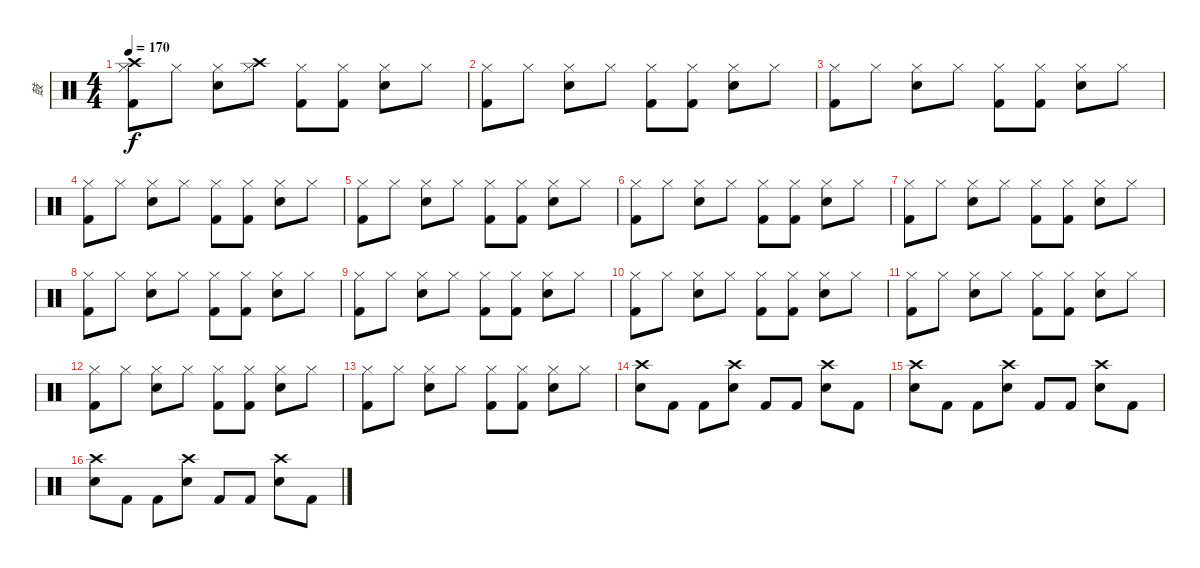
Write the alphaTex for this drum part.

\track ("鼓" "鼓") {instrument percussion}
\staff {score}
\articulation defaults
\ts (4 4)
\tempo 170
\clef neutral
\ks c
("Crash high (hit)" "Hi-Hat (closed)" "Kick (hit) 2").8{dy f} "Hi-Hat (closed)".8 ("Hi-Hat (closed)" "Electric Snare (hit)").8 ("Crash high (hit)" "Hi-Hat (closed)").8 ("Hi-Hat (closed)" "Kick (hit) 2").8 ("Hi-Hat (closed)" "Kick (hit) 2").8 ("Hi-Hat (closed)" "Electric Snare (hit)").8 "Hi-Hat (closed)".8 |
("Hi-Hat (closed)" "Kick (hit) 2").8 "Hi-Hat (closed)".8 ("Hi-Hat (closed)" "Electric Snare (hit)").8 "Hi-Hat (closed)".8 ("Hi-Hat (closed)" "Kick (hit) 2").8 ("Hi-Hat (closed)" "Kick (hit) 2").8 ("Hi-Hat (closed)" "Electric Snare (hit)").8 "Hi-Hat (closed)".8 |
("Hi-Hat (closed)" "Kick (hit) 2").8 "Hi-Hat (closed)".8 ("Hi-Hat (closed)" "Electric Snare (hit)").8 "Hi-Hat (closed)".8 ("Hi-Hat (closed)" "Kick (hit) 2").8 ("Hi-Hat (closed)" "Kick (hit) 2").8 ("Hi-Hat (closed)" "Electric Snare (hit)").8 "Hi-Hat (closed)".8 |
("Hi-Hat (closed)" "Kick (hit) 2").8 "Hi-Hat (closed)".8 ("Hi-Hat (closed)" "Electric Snare (hit)").8 "Hi-Hat (closed)".8 ("Hi-Hat (closed)" "Kick (hit) 2").8 ("Hi-Hat (closed)" "Kick (hit) 2").8 ("Hi-Hat (closed)" "Electric Snare (hit)").8 "Hi-Hat (closed)".8 |
("Hi-Hat (closed)" "Kick (hit) 2").8 "Hi-Hat (closed)".8 ("Hi-Hat (closed)" "Electric Snare (hit)").8 "Hi-Hat (closed)".8 ("Hi-Hat (closed)" "Kick (hit) 2").8 ("Hi-Hat (closed)" "Kick (hit) 2").8 ("Hi-Hat (closed)" "Electric Snare (hit)").8 "Hi-Hat (closed)".8 |
("Hi-Hat (closed)" "Kick (hit) 2").8 "Hi-Hat (closed)".8 ("Hi-Hat (closed)" "Electric Snare (hit)").8 "Hi-Hat (closed)".8 ("Hi-Hat (closed)" "Kick (hit) 2").8 ("Hi-Hat (closed)" "Kick (hit) 2").8 ("Hi-Hat (closed)" "Electric Snare (hit)").8 "Hi-Hat (closed)".8 |
("Hi-Hat (closed)" "Kick (hit) 2").8 "Hi-Hat (closed)".8 ("Hi-Hat (closed)" "Electric Snare (hit)").8 "Hi-Hat (closed)".8 ("Hi-Hat (closed)" "Kick (hit) 2").8 ("Hi-Hat (closed)" "Kick (hit) 2").8 ("Hi-Hat (closed)" "Electric Snare (hit)").8 "Hi-Hat (closed)".8 |
("Hi-Hat (closed)" "Kick (hit) 2").8 "Hi-Hat (closed)".8 ("Hi-Hat (closed)" "Electric Snare (hit)").8 "Hi-Hat (closed)".8 ("Hi-Hat (closed)" "Kick (hit) 2").8 ("Hi-Hat (closed)" "Kick (hit) 2").8 ("Hi-Hat (closed)" "Electric Snare (hit)").8 "Hi-Hat (closed)".8 |
("Hi-Hat (closed)" "Kick (hit) 2").8 "Hi-Hat (closed)".8 ("Hi-Hat (closed)" "Electric Snare (hit)").8 "Hi-Hat (closed)".8 ("Hi-Hat (closed)" "Kick (hit) 2").8 ("Hi-Hat (closed)" "Kick (hit) 2").8 ("Hi-Hat (closed)" "Electric Snare (hit)").8 "Hi-Hat (closed)".8 |
("Hi-Hat (closed)" "Kick (hit) 2").8 "Hi-Hat (closed)".8 ("Hi-Hat (closed)" "Electric Snare (hit)").8 "Hi-Hat (closed)".8 ("Hi-Hat (closed)" "Kick (hit) 2").8 ("Hi-Hat (closed)" "Kick (hit) 2").8 ("Hi-Hat (closed)" "Electric Snare (hit)").8 "Hi-Hat (closed)".8 |
("Hi-Hat (closed)" "Kick (hit) 2").8 "Hi-Hat (closed)".8 ("Hi-Hat (closed)" "Electric Snare (hit)").8 "Hi-Hat (closed)".8 ("Hi-Hat (closed)" "Kick (hit) 2").8 ("Hi-Hat (closed)" "Kick (hit) 2").8 ("Hi-Hat (closed)" "Electric Snare (hit)").8 "Hi-Hat (closed)".8 |
("Hi-Hat (closed)" "Kick (hit) 2").8 "Hi-Hat (closed)".8 ("Hi-Hat (closed)" "Electric Snare (hit)").8 "Hi-Hat (closed)".8 ("Hi-Hat (closed)" "Kick (hit) 2").8 ("Hi-Hat (closed)" "Kick (hit) 2").8 ("Hi-Hat (closed)" "Electric Snare (hit)").8 "Hi-Hat (closed)".8 |
("Hi-Hat (closed)" "Kick (hit) 2").8 "Hi-Hat (closed)".8 ("Hi-Hat (closed)" "Electric Snare (hit)").8 "Hi-Hat (closed)".8 ("Hi-Hat (closed)" "Kick (hit) 2").8 ("Hi-Hat (closed)" "Kick (hit) 2").8 ("Hi-Hat (closed)" "Electric Snare (hit)").8 "Hi-Hat (closed)".8 |
("Crash high (hit)" "Electric Snare (hit)").8 "Kick (hit) 2".8 "Kick (hit) 2".8 ("Crash high (hit)" "Electric Snare (hit)").8 "Kick (hit) 2".8 "Kick (hit) 2".8 ("Crash high (hit)" "Electric Snare (hit)").8 "Kick (hit) 2".8 |
("Crash high (hit)" "Electric Snare (hit)").8 "Kick (hit) 2".8 "Kick (hit) 2".8 ("Crash high (hit)" "Electric Snare (hit)").8 "Kick (hit) 2".8 "Kick (hit) 2".8 ("Crash high (hit)" "Electric Snare (hit)").8 "Kick (hit) 2".8 |
("Crash high (hit)" "Electric Snare (hit)").8 "Kick (hit) 2".8 "Kick (hit) 2".8 ("Crash high (hit)" "Electric Snare (hit)").8 "Kick (hit) 2".8 "Kick (hit) 2".8 ("Crash high (hit)" "Electric Snare (hit)").8 "Kick (hit) 2".8
